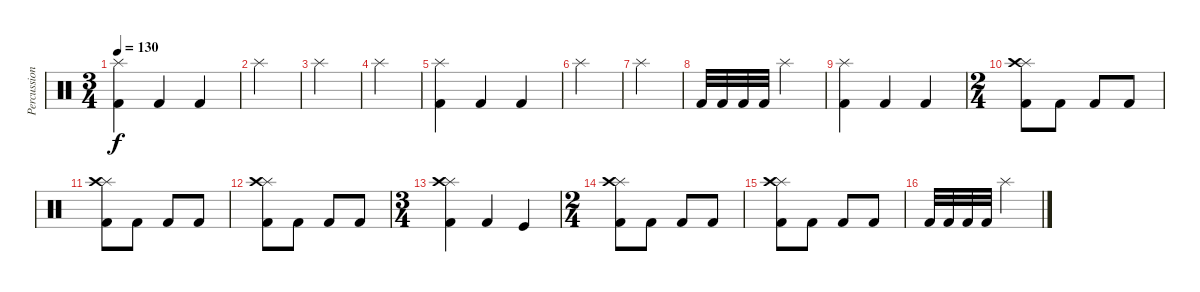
\track ("Percussion" "Percussion") {instrument percussion}
\staff {score}
\articulation defaults
\ts (3 4)
\tempo 130
\clef neutral
\ks c
("Splash (hit)" "Kick (hit) 2").4{dy f} "Kick (hit) 2".4 "Kick (hit) 2".4 |
"Splash (hit)".4 |
"Splash (hit)".4 |
"Splash (hit)".4 |
("Splash (hit)" "Kick (hit) 2").4 "Kick (hit) 2".4 "Kick (hit) 2".4 |
"Splash (hit)".4 |
"Splash (hit)".4 |
"Kick (hit) 2".32 "Kick (hit) 2".32 "Kick (hit) 2".32 "Kick (hit) 2".32 "Splash (hit)".4 |
("Splash (hit)" "Kick (hit) 2").4 "Kick (hit) 2".4 "Kick (hit) 2".4 |
\ts (2 4)
("Splash (hit)" "Crash high (hit)" "Kick (hit) 2").8 "Kick (hit) 2".8 "Kick (hit) 2".8 "Kick (hit) 2".8 |
("Splash (hit)" "Crash high (hit)" "Kick (hit) 2").8 "Kick (hit) 2".8 "Kick (hit) 2".8 "Kick (hit) 2".8 |
("Splash (hit)" "Crash high (hit)" "Kick (hit) 2").8 "Kick (hit) 2".8 "Kick (hit) 2".8 "Kick (hit) 2".8 |
\ts (3 4)
("Splash (hit)" "Crash high (hit)" "Kick (hit) 2").4 "Kick (hit) 2".4 "Kick (hit)".4 |
\ts (2 4)
("Splash (hit)" "Crash high (hit)" "Kick (hit) 2").8 "Kick (hit) 2".8 "Kick (hit) 2".8 "Kick (hit) 2".8 |
("Splash (hit)" "Crash high (hit)" "Kick (hit) 2").8 "Kick (hit) 2".8 "Kick (hit) 2".8 "Kick (hit) 2".8 |
"Kick (hit) 2".32 "Kick (hit) 2".32 "Kick (hit) 2".32 "Kick (hit) 2".32 "Splash (hit)".4
